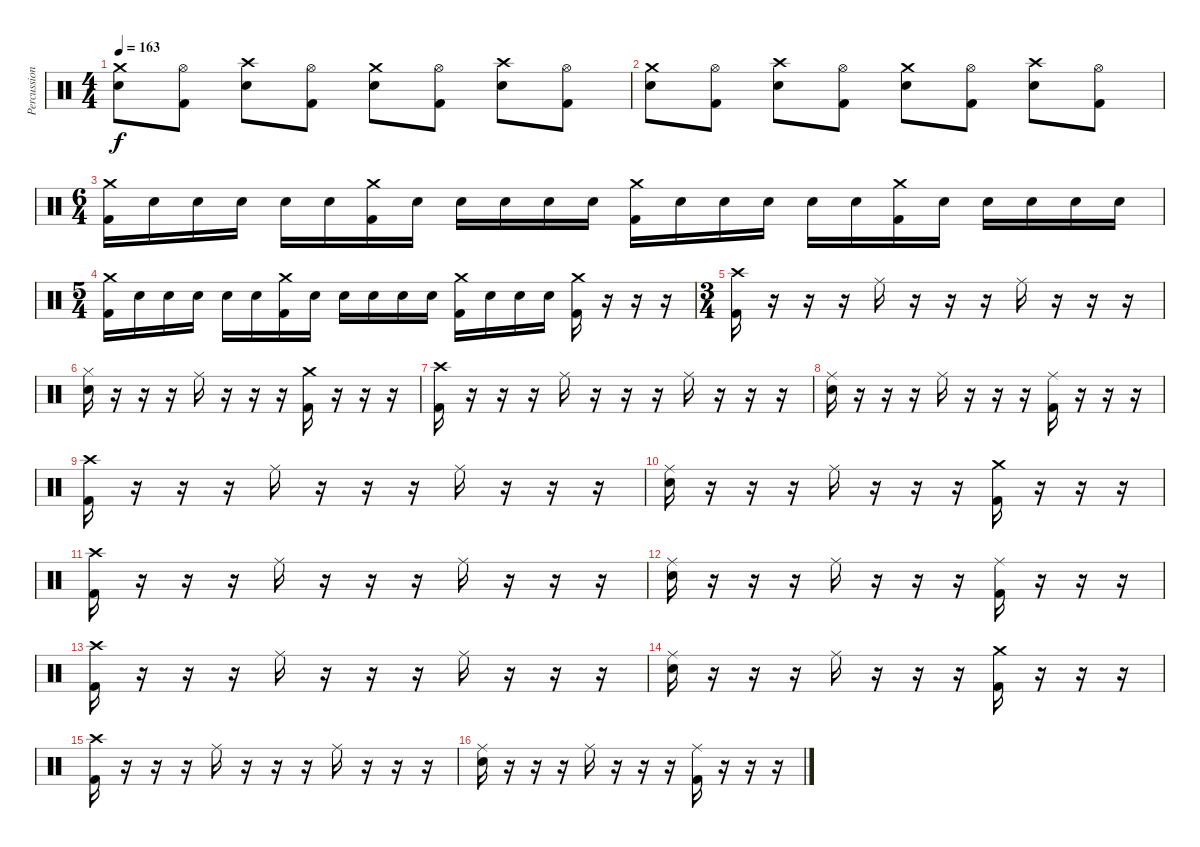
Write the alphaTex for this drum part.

\track ("Percussion" "Percussion") {instrument percussion}
\staff {score}
\articulation defaults
\ts (4 4)
\tempo 163
\clef neutral
\ks c
("Crash medium (hit)" "Snare (hit) 2").8{dy f} ("Hi-Hat (open)" "Kick (hit) 2").8 ("Crash high (hit)" "Snare (hit) 2").8 ("Hi-Hat (open)" "Kick (hit) 2").8 ("Crash medium (hit)" "Snare (hit) 2").8 ("Hi-Hat (open)" "Kick (hit) 2").8 ("Crash high (hit)" "Snare (hit) 2").8 ("Hi-Hat (open)" "Kick (hit) 2").8 |
("Crash medium (hit)" "Snare (hit) 2").8 ("Hi-Hat (open)" "Kick (hit) 2").8 ("Crash high (hit)" "Snare (hit) 2").8 ("Hi-Hat (open)" "Kick (hit) 2").8 ("Crash medium (hit)" "Snare (hit) 2").8 ("Hi-Hat (open)" "Kick (hit) 2").8 ("Crash high (hit)" "Snare (hit) 2").8 ("Hi-Hat (open)" "Kick (hit) 2").8 |
\ts (6 4)
("Crash medium (hit)" "Kick (hit) 2").16 "Snare (hit) 2".16 "Snare (hit) 2".16 "Snare (hit) 2".16 "Snare (hit) 2".16 "Snare (hit) 2".16 ("Crash medium (hit)" "Kick (hit) 2").16 "Snare (hit) 2".16 "Snare (hit) 2".16 "Snare (hit) 2".16 "Snare (hit) 2".16 "Snare (hit) 2".16 ("Crash medium (hit)" "Kick (hit) 2").16 "Snare (hit) 2".16 "Snare (hit) 2".16 "Snare (hit) 2".16 "Snare (hit) 2".16 "Snare (hit) 2".16 ("Crash medium (hit)" "Kick (hit) 2").16 "Snare (hit) 2".16 "Snare (hit) 2".16 "Snare (hit) 2".16 "Snare (hit) 2".16 "Snare (hit) 2".16 |
\ts (5 4)
("Crash medium (hit)" "Kick (hit) 2").16 "Snare (hit) 2".16 "Snare (hit) 2".16 "Snare (hit) 2".16 "Snare (hit) 2".16 "Snare (hit) 2".16 ("Crash medium (hit)" "Kick (hit) 2").16 "Snare (hit) 2".16 "Snare (hit) 2".16 "Snare (hit) 2".16 "Snare (hit) 2".16 "Snare (hit) 2".16 ("Crash medium (hit)" "Kick (hit) 2").16 "Snare (hit) 2".16 "Snare (hit) 2".16 "Snare (hit) 2".16 ("Crash medium (hit)" "Kick (hit) 2").16 r.16 r.16 r.16 |
\ts (3 4)
("Crash high (hit)" "Kick (hit) 2").16 r.16 r.16 r.16 "Ride (middle)".16 r.16 r.16 r.16 "Ride (middle)".16 r.16 r.16 r.16 |
("Hi-Hat (closed)" "Snare (hit) 2").16 r.16 r.16 r.16 "Ride (middle)".16 r.16 r.16 r.16 ("Crash medium (hit)" "Kick (hit) 2").16 r.16 r.16 r.16 |
("Crash high (hit)" "Kick (hit) 2").16 r.16 r.16 r.16 "Ride (middle)".16 r.16 r.16 r.16 "Ride (middle)".16 r.16 r.16 r.16 |
("Ride (middle)" "Snare (hit) 2").16 r.16 r.16 r.16 "Ride (middle)".16 r.16 r.16 r.16 ("Ride (middle)" "Kick (hit) 2").16 r.16 r.16 r.16 |
("Crash high (hit)" "Kick (hit) 2").16 r.16 r.16 r.16 "Ride (middle)".16 r.16 r.16 r.16 "Ride (middle)".16 r.16 r.16 r.16 |
("Ride (middle)" "Snare (hit) 2").16 r.16 r.16 r.16 "Ride (middle)".16 r.16 r.16 r.16 ("Crash medium (hit)" "Kick (hit) 2").16 r.16 r.16 r.16 |
("Crash high (hit)" "Kick (hit) 2").16 r.16 r.16 r.16 "Ride (middle)".16 r.16 r.16 r.16 "Ride (middle)".16 r.16 r.16 r.16 |
("Ride (middle)" "Snare (hit) 2").16 r.16 r.16 r.16 "Ride (middle)".16 r.16 r.16 r.16 ("Ride (middle)" "Kick (hit) 2").16 r.16 r.16 r.16 |
("Crash high (hit)" "Kick (hit) 2").16 r.16 r.16 r.16 "Ride (middle)".16 r.16 r.16 r.16 "Ride (middle)".16 r.16 r.16 r.16 |
("Ride (middle)" "Snare (hit) 2").16 r.16 r.16 r.16 "Ride (middle)".16 r.16 r.16 r.16 ("Crash medium (hit)" "Kick (hit) 2").16 r.16 r.16 r.16 |
("Crash high (hit)" "Kick (hit) 2").16 r.16 r.16 r.16 "Ride (middle)".16 r.16 r.16 r.16 "Ride (middle)".16 r.16 r.16 r.16 |
("Ride (middle)" "Snare (hit) 2").16 r.16 r.16 r.16 "Ride (middle)".16 r.16 r.16 r.16 ("Ride (middle)" "Kick (hit) 2").16 r.16 r.16 r.16
